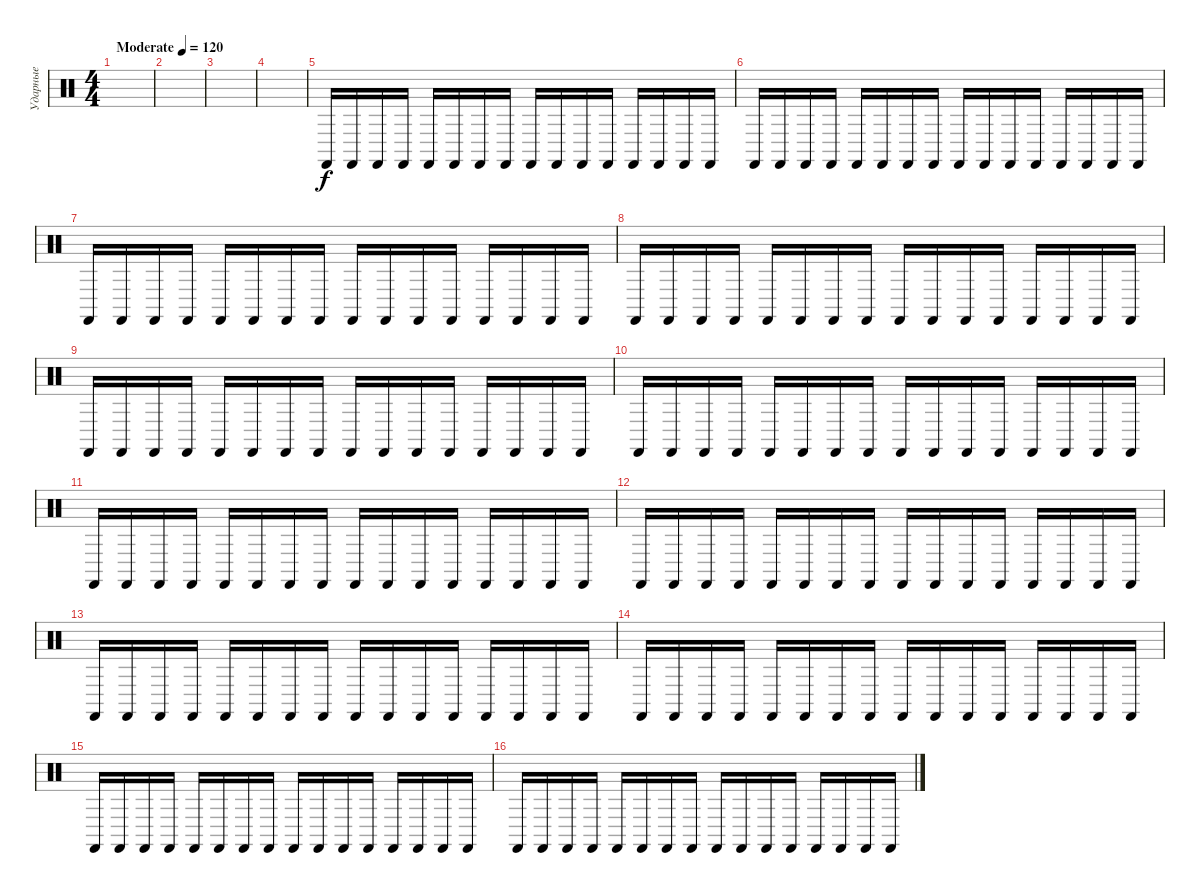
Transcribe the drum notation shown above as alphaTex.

\track ("Ударные" "Ударные") {instrument percussion}
\staff {score}
\articulation defaults
\ts (4 4)
\tempo (120 "Moderate")
\clef neutral
\ks c
|
|
|
|
"Castanets (hit)".16 "Castanets (hit)".16 "Castanets (hit)".16 "Castanets (hit)".16 "Castanets (hit)".16 "Castanets (hit)".16 "Castanets (hit)".16 "Castanets (hit)".16 "Castanets (hit)".16 "Castanets (hit)".16 "Castanets (hit)".16 "Castanets (hit)".16 "Castanets (hit)".16 "Castanets (hit)".16 "Castanets (hit)".16 "Castanets (hit)".16 |
"Castanets (hit)".16 "Castanets (hit)".16 "Castanets (hit)".16 "Castanets (hit)".16 "Castanets (hit)".16 "Castanets (hit)".16 "Castanets (hit)".16 "Castanets (hit)".16 "Castanets (hit)".16 "Castanets (hit)".16 "Castanets (hit)".16 "Castanets (hit)".16 "Castanets (hit)".16 "Castanets (hit)".16 "Castanets (hit)".16 "Castanets (hit)".16 |
"Castanets (hit)".16 "Castanets (hit)".16 "Castanets (hit)".16 "Castanets (hit)".16 "Castanets (hit)".16 "Castanets (hit)".16 "Castanets (hit)".16 "Castanets (hit)".16 "Castanets (hit)".16 "Castanets (hit)".16 "Castanets (hit)".16 "Castanets (hit)".16 "Castanets (hit)".16 "Castanets (hit)".16 "Castanets (hit)".16 "Castanets (hit)".16 |
"Castanets (hit)".16 "Castanets (hit)".16 "Castanets (hit)".16 "Castanets (hit)".16 "Castanets (hit)".16 "Castanets (hit)".16 "Castanets (hit)".16 "Castanets (hit)".16 "Castanets (hit)".16 "Castanets (hit)".16 "Castanets (hit)".16 "Castanets (hit)".16 "Castanets (hit)".16 "Castanets (hit)".16 "Castanets (hit)".16 "Castanets (hit)".16 |
"Castanets (hit)".16 "Castanets (hit)".16 "Castanets (hit)".16 "Castanets (hit)".16 "Castanets (hit)".16 "Castanets (hit)".16 "Castanets (hit)".16 "Castanets (hit)".16 "Castanets (hit)".16 "Castanets (hit)".16 "Castanets (hit)".16 "Castanets (hit)".16 "Castanets (hit)".16 "Castanets (hit)".16 "Castanets (hit)".16 "Castanets (hit)".16 |
"Castanets (hit)".16 "Castanets (hit)".16 "Castanets (hit)".16 "Castanets (hit)".16 "Castanets (hit)".16 "Castanets (hit)".16 "Castanets (hit)".16 "Castanets (hit)".16 "Castanets (hit)".16 "Castanets (hit)".16 "Castanets (hit)".16 "Castanets (hit)".16 "Castanets (hit)".16 "Castanets (hit)".16 "Castanets (hit)".16 "Castanets (hit)".16 |
"Castanets (hit)".16 "Castanets (hit)".16 "Castanets (hit)".16 "Castanets (hit)".16 "Castanets (hit)".16 "Castanets (hit)".16 "Castanets (hit)".16 "Castanets (hit)".16 "Castanets (hit)".16 "Castanets (hit)".16 "Castanets (hit)".16 "Castanets (hit)".16 "Castanets (hit)".16 "Castanets (hit)".16 "Castanets (hit)".16 "Castanets (hit)".16 |
"Castanets (hit)".16 "Castanets (hit)".16 "Castanets (hit)".16 "Castanets (hit)".16 "Castanets (hit)".16 "Castanets (hit)".16 "Castanets (hit)".16 "Castanets (hit)".16 "Castanets (hit)".16 "Castanets (hit)".16 "Castanets (hit)".16 "Castanets (hit)".16 "Castanets (hit)".16 "Castanets (hit)".16 "Castanets (hit)".16 "Castanets (hit)".16 |
"Castanets (hit)".16 "Castanets (hit)".16 "Castanets (hit)".16 "Castanets (hit)".16 "Castanets (hit)".16 "Castanets (hit)".16 "Castanets (hit)".16 "Castanets (hit)".16 "Castanets (hit)".16 "Castanets (hit)".16 "Castanets (hit)".16 "Castanets (hit)".16 "Castanets (hit)".16 "Castanets (hit)".16 "Castanets (hit)".16 "Castanets (hit)".16 |
"Castanets (hit)".16 "Castanets (hit)".16 "Castanets (hit)".16 "Castanets (hit)".16 "Castanets (hit)".16 "Castanets (hit)".16 "Castanets (hit)".16 "Castanets (hit)".16 "Castanets (hit)".16 "Castanets (hit)".16 "Castanets (hit)".16 "Castanets (hit)".16 "Castanets (hit)".16 "Castanets (hit)".16 "Castanets (hit)".16 "Castanets (hit)".16 |
"Castanets (hit)".16 "Castanets (hit)".16 "Castanets (hit)".16 "Castanets (hit)".16 "Castanets (hit)".16 "Castanets (hit)".16 "Castanets (hit)".16 "Castanets (hit)".16 "Castanets (hit)".16 "Castanets (hit)".16 "Castanets (hit)".16 "Castanets (hit)".16 "Castanets (hit)".16 "Castanets (hit)".16 "Castanets (hit)".16 "Castanets (hit)".16 |
"Castanets (hit)".16 "Castanets (hit)".16 "Castanets (hit)".16 "Castanets (hit)".16 "Castanets (hit)".16 "Castanets (hit)".16 "Castanets (hit)".16 "Castanets (hit)".16 "Castanets (hit)".16 "Castanets (hit)".16 "Castanets (hit)".16 "Castanets (hit)".16 "Castanets (hit)".16 "Castanets (hit)".16 "Castanets (hit)".16 "Castanets (hit)".16
